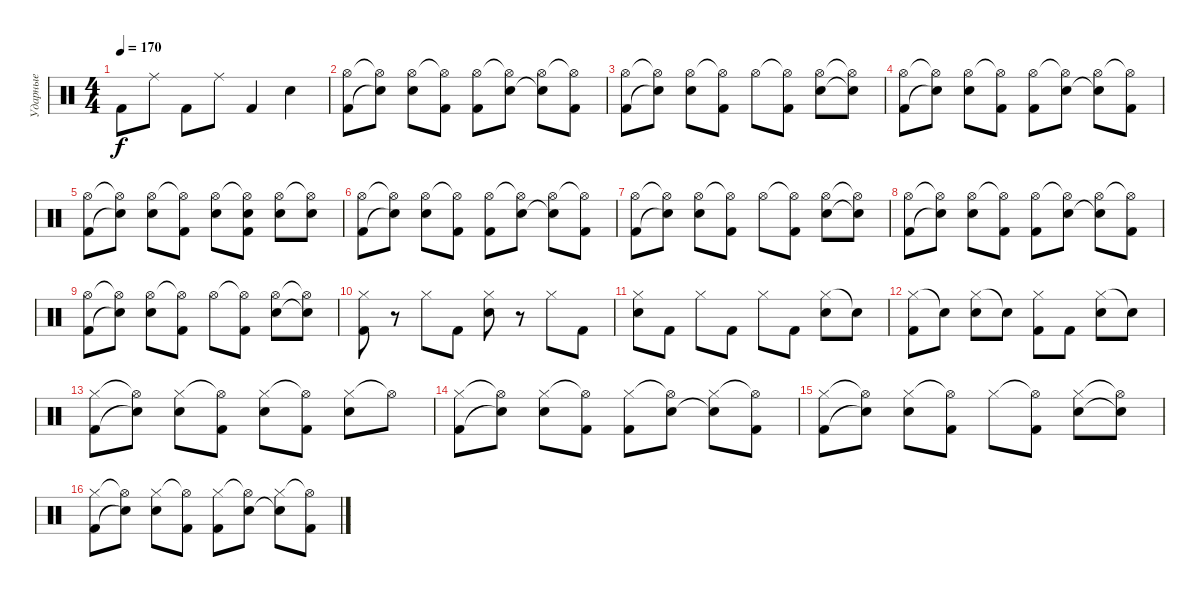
\track ("Ударные" "Ударные") {instrument percussion}
\staff {score}
\articulation defaults
\ts (4 4)
\tempo 170
\clef neutral
\ks c "Kick (hit) 2".8{dy f} "Ride (middle)".8 "Kick (hit) 2".8 "Ride (middle)".8 "Kick (hit) 2".4 "Electric Snare (hit)".4
|
("Hi-Hat (open)" "Kick (hit) 2").8 ("Hi-Hat (open)"{t} "Snare (hit)"{t}).8 ("Hi-Hat (open)" "Electric Snare (hit)").8 ("Hi-Hat (open)"{t} "Kick (hit) 2").8 ("Hi-Hat (open)" "Kick (hit) 2").8 ("Hi-Hat (open)"{t} "Electric Snare (hit)").8 ("Hi-Hat (open)" "Snare (hit)"{t}).8 ("Hi-Hat (open)"{t} "Kick (hit) 2").8 |
("Hi-Hat (open)" "Kick (hit) 2").8 ("Hi-Hat (open)"{t} "Snare (hit)"{t}).8 ("Hi-Hat (open)" "Electric Snare (hit)").8 ("Hi-Hat (open)"{t} "Kick (hit) 2").8 "Hi-Hat (open)".8 ("Hi-Hat (open)"{t} "Kick (hit) 2").8 ("Hi-Hat (open)" "Electric Snare (hit)").8 ("Hi-Hat (open)"{t} "Snare (hit)"{t}).8 |
("Hi-Hat (open)" "Kick (hit) 2").8 ("Hi-Hat (open)"{t} "Snare (hit)"{t}).8 ("Hi-Hat (open)" "Electric Snare (hit)").8 ("Hi-Hat (open)"{t} "Kick (hit) 2").8 ("Hi-Hat (open)" "Kick (hit) 2").8 ("Hi-Hat (open)"{t} "Electric Snare (hit)").8 ("Hi-Hat (open)" "Snare (hit)"{t}).8 ("Hi-Hat (open)"{t} "Kick (hit) 2").8 |
("Hi-Hat (open)" "Kick (hit) 2").8 ("Hi-Hat (open)"{t} "Snare (hit)"{t}).8 ("Hi-Hat (open)" "Electric Snare (hit)").8 ("Hi-Hat (open)"{t} "Kick (hit) 2").8 ("Hi-Hat (open)" "Electric Snare (hit)").8 ("Hi-Hat (open)"{t} "Electric Snare (hit)" "Kick (hit) 2").8 ("Hi-Hat (open)" "Electric Snare (hit)").8 ("Hi-Hat (open)"{t} "Electric Snare (hit)").8 |
("Hi-Hat (open)" "Kick (hit) 2").8 ("Hi-Hat (open)"{t} "Snare (hit)"{t}).8 ("Hi-Hat (open)" "Electric Snare (hit)").8 ("Hi-Hat (open)"{t} "Kick (hit) 2").8 ("Hi-Hat (open)" "Kick (hit) 2").8 ("Hi-Hat (open)"{t} "Electric Snare (hit)").8 ("Hi-Hat (open)" "Snare (hit)"{t}).8 ("Hi-Hat (open)"{t} "Kick (hit) 2").8 |
("Hi-Hat (open)" "Kick (hit) 2").8 ("Hi-Hat (open)"{t} "Snare (hit)"{t}).8 ("Hi-Hat (open)" "Electric Snare (hit)").8 ("Hi-Hat (open)"{t} "Kick (hit) 2").8 "Hi-Hat (open)".8 ("Hi-Hat (open)"{t} "Kick (hit) 2").8 ("Hi-Hat (open)" "Electric Snare (hit)").8 ("Hi-Hat (open)"{t} "Snare (hit)"{t}).8 |
("Hi-Hat (open)" "Kick (hit) 2").8 ("Hi-Hat (open)"{t} "Snare (hit)"{t}).8 ("Hi-Hat (open)" "Electric Snare (hit)").8 ("Hi-Hat (open)"{t} "Kick (hit) 2").8 ("Hi-Hat (open)" "Kick (hit) 2").8 ("Hi-Hat (open)"{t} "Electric Snare (hit)").8 ("Hi-Hat (open)" "Snare (hit)"{t}).8 ("Hi-Hat (open)"{t} "Kick (hit) 2").8 |
("Hi-Hat (open)" "Kick (hit) 2").8 ("Hi-Hat (open)"{t} "Snare (hit)"{t}).8 ("Hi-Hat (open)" "Electric Snare (hit)").8 ("Hi-Hat (open)"{t} "Kick (hit) 2").8 "Hi-Hat (open)".8 ("Hi-Hat (open)"{t} "Kick (hit) 2").8 ("Hi-Hat (open)" "Electric Snare (hit)").8 ("Hi-Hat (open)"{t} "Snare (hit)"{t}).8 |
("Hi-Hat (closed)" "Kick (hit) 2").8 r.8 "Hi-Hat (closed)".8 "Kick (hit) 2".8 ("Hi-Hat (closed)" "Electric Snare (hit)").8 r.8 "Hi-Hat (closed)".8 "Kick (hit) 2".8 |
("Hi-Hat (closed)" "Electric Snare (hit)").8 "Kick (hit) 2".8 "Hi-Hat (closed)".8 "Kick (hit) 2".8 "Hi-Hat (closed)".8 "Kick (hit) 2".8 ("Hi-Hat (closed)" "Electric Snare (hit)").8 "Snare (hit)"{t}.8 |
("Hi-Hat (closed)" "Kick (hit) 2").8 "Snare (hit)"{t}.8 ("Hi-Hat (closed)" "Electric Snare (hit)").8 "Snare (hit)"{t}.8 ("Hi-Hat (closed)" "Kick (hit) 2").8 "Kick (hit) 2".8 ("Hi-Hat (closed)" "Electric Snare (hit)").8 "Snare (hit)"{t}.8 |
("Hi-Hat (closed)" "Kick (hit) 2").8 ("Hi-Hat (open)"{t} "Snare (hit)"{t}).8 ("Hi-Hat (closed)" "Electric Snare (hit)").8 ("Hi-Hat (open)"{t} "Kick (hit) 2").8 ("Hi-Hat (closed)" "Electric Snare (hit)").8 ("Hi-Hat (open)"{t} "Kick (hit) 2").8 ("Hi-Hat (closed)" "Electric Snare (hit)").8 "Hi-Hat (open)"{t}.8 |
("Hi-Hat (closed)" "Kick (hit) 2").8 ("Hi-Hat (open)"{t} "Snare (hit)"{t}).8 ("Hi-Hat (closed)" "Electric Snare (hit)").8 ("Hi-Hat (open)"{t} "Kick (hit) 2").8 ("Hi-Hat (closed)" "Kick (hit) 2").8 ("Hi-Hat (open)"{t} "Electric Snare (hit)").8 ("Hi-Hat (closed)" "Snare (hit)"{t}).8 ("Hi-Hat (open)"{t} "Kick (hit) 2").8 |
("Hi-Hat (closed)" "Kick (hit) 2").8 ("Hi-Hat (open)"{t} "Snare (hit)"{t}).8 ("Hi-Hat (closed)" "Electric Snare (hit)").8 ("Hi-Hat (open)"{t} "Kick (hit) 2").8 "Hi-Hat (closed)".8 ("Hi-Hat (open)"{t} "Kick (hit) 2").8 ("Hi-Hat (closed)" "Electric Snare (hit)").8 ("Hi-Hat (open)"{t} "Snare (hit)"{t}).8 |
("Hi-Hat (closed)" "Kick (hit) 2").8 ("Hi-Hat (open)"{t} "Snare (hit)"{t}).8 ("Hi-Hat (closed)" "Electric Snare (hit)").8 ("Hi-Hat (open)"{t} "Kick (hit) 2").8 ("Hi-Hat (closed)" "Kick (hit) 2").8 ("Hi-Hat (open)"{t} "Electric Snare (hit)").8 ("Hi-Hat (closed)" "Snare (hit)"{t}).8 ("Hi-Hat (open)"{t} "Kick (hit) 2").8
